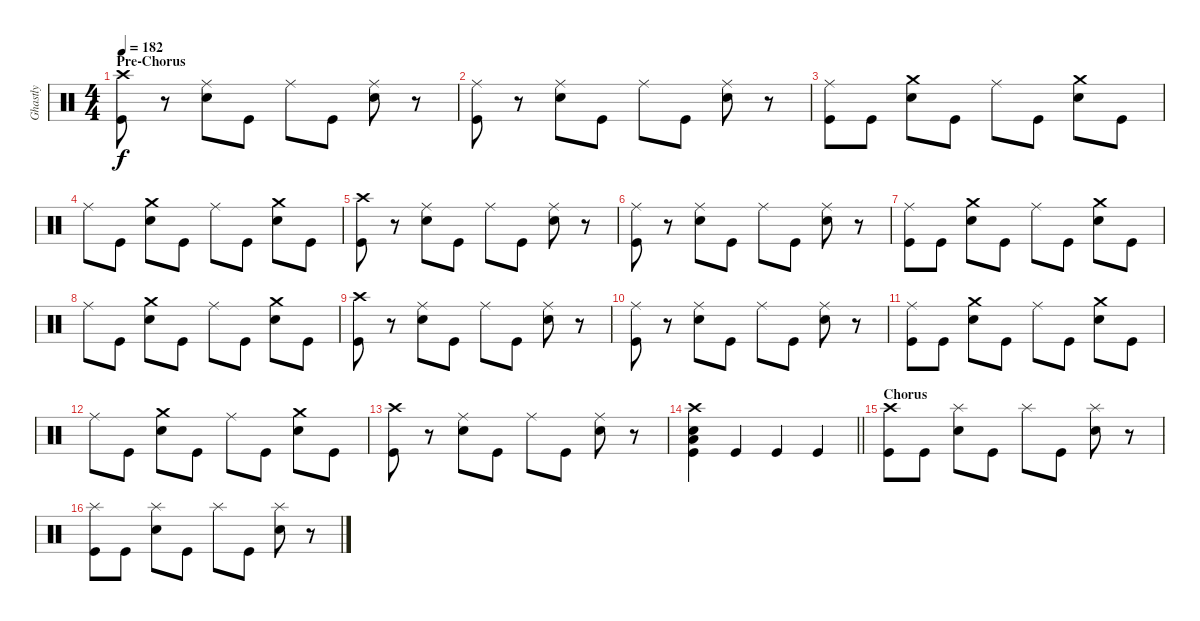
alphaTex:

\track ("Ghastly" "Ghastly") {instrument percussion}
\staff {score}
\articulation defaults
\ts (4 4)
\section ("" "Pre-Chorus")
\tempo 182
\clef neutral
\ks c
("Crash high (hit)" "Kick (hit)").8{dy f} r.8 ("Ride (middle)" "Electric Snare (hit)").8 "Kick (hit)".8 "Ride (middle)".8 "Kick (hit)".8 ("Ride (middle)" "Electric Snare (hit)").8 r.8 |
("Ride (middle)" "Kick (hit)").8 r.8 ("Ride (middle)" "Electric Snare (hit)").8 "Kick (hit)".8 "Ride (middle)".8 "Kick (hit)".8 ("Ride (middle)" "Electric Snare (hit)").8 r.8 |
("Ride (middle)" "Kick (hit)").8 "Kick (hit)".8 ("Crash medium (hit)" "Electric Snare (hit)").8 "Kick (hit)".8 "Ride (middle)".8 "Kick (hit)".8 ("Crash medium (hit)" "Electric Snare (hit)").8 "Kick (hit)".8 |
"Ride (middle)".8 "Kick (hit)".8 ("Crash medium (hit)" "Electric Snare (hit)").8 "Kick (hit)".8 "Ride (middle)".8 "Kick (hit)".8 ("Crash medium (hit)" "Electric Snare (hit)").8 "Kick (hit)".8 |
("Crash high (hit)" "Kick (hit)").8 r.8 ("Ride (middle)" "Electric Snare (hit)").8 "Kick (hit)".8 "Ride (middle)".8 "Kick (hit)".8 ("Ride (middle)" "Electric Snare (hit)").8 r.8 |
("Ride (middle)" "Kick (hit)").8 r.8 ("Ride (middle)" "Electric Snare (hit)").8 "Kick (hit)".8 "Ride (middle)".8 "Kick (hit)".8 ("Ride (middle)" "Electric Snare (hit)").8 r.8 |
("Ride (middle)" "Kick (hit)").8 "Kick (hit)".8 ("Crash medium (hit)" "Electric Snare (hit)").8 "Kick (hit)".8 "Ride (middle)".8 "Kick (hit)".8 ("Crash medium (hit)" "Electric Snare (hit)").8 "Kick (hit)".8 |
"Ride (middle)".8 "Kick (hit)".8 ("Crash medium (hit)" "Electric Snare (hit)").8 "Kick (hit)".8 "Ride (middle)".8 "Kick (hit)".8 ("Crash medium (hit)" "Electric Snare (hit)").8 "Kick (hit)".8 |
("Crash high (hit)" "Kick (hit)").8 r.8 ("Ride (middle)" "Electric Snare (hit)").8 "Kick (hit)".8 "Ride (middle)".8 "Kick (hit)".8 ("Ride (middle)" "Electric Snare (hit)").8 r.8 |
("Ride (middle)" "Kick (hit)").8 r.8 ("Ride (middle)" "Electric Snare (hit)").8 "Kick (hit)".8 "Ride (middle)".8 "Kick (hit)".8 ("Ride (middle)" "Electric Snare (hit)").8 r.8 |
("Ride (middle)" "Kick (hit)").8 "Kick (hit)".8 ("Crash medium (hit)" "Electric Snare (hit)").8 "Kick (hit)".8 "Ride (middle)".8 "Kick (hit)".8 ("Crash medium (hit)" "Electric Snare (hit)").8 "Kick (hit)".8 |
"Ride (middle)".8 "Kick (hit)".8 ("Crash medium (hit)" "Electric Snare (hit)").8 "Kick (hit)".8 "Ride (middle)".8 "Kick (hit)".8 ("Crash medium (hit)" "Electric Snare (hit)").8 "Kick (hit)".8 |
("Crash high (hit)" "Kick (hit)").8 r.8 ("Ride (middle)" "Electric Snare (hit)").8 "Kick (hit)".8 "Ride (middle)".8 "Kick (hit)".8 ("Ride (middle)" "Electric Snare (hit)").8 r.8 |
\barLineRight lightlight
("Crash high (hit)" "Low Tom (hit)" "Electric Snare (hit)" "Kick (hit)").4 "Kick (hit)".4 "Kick (hit)".4 "Kick (hit)".4 |
\section ("" "Chorus")
("Crash high (hit)" "Kick (hit)").8 "Kick (hit)".8 ("Splash (hit)" "Electric Snare (hit)").8 "Kick (hit)".8 "Splash (hit)".8 "Kick (hit)".8 ("Splash (hit)" "Electric Snare (hit)").8 r.8 |
("Splash (hit)" "Kick (hit)").8 "Kick (hit)".8 ("Splash (hit)" "Electric Snare (hit)").8 "Kick (hit)".8 "Splash (hit)".8 "Kick (hit)".8 ("Splash (hit)" "Electric Snare (hit)").8 r.8
